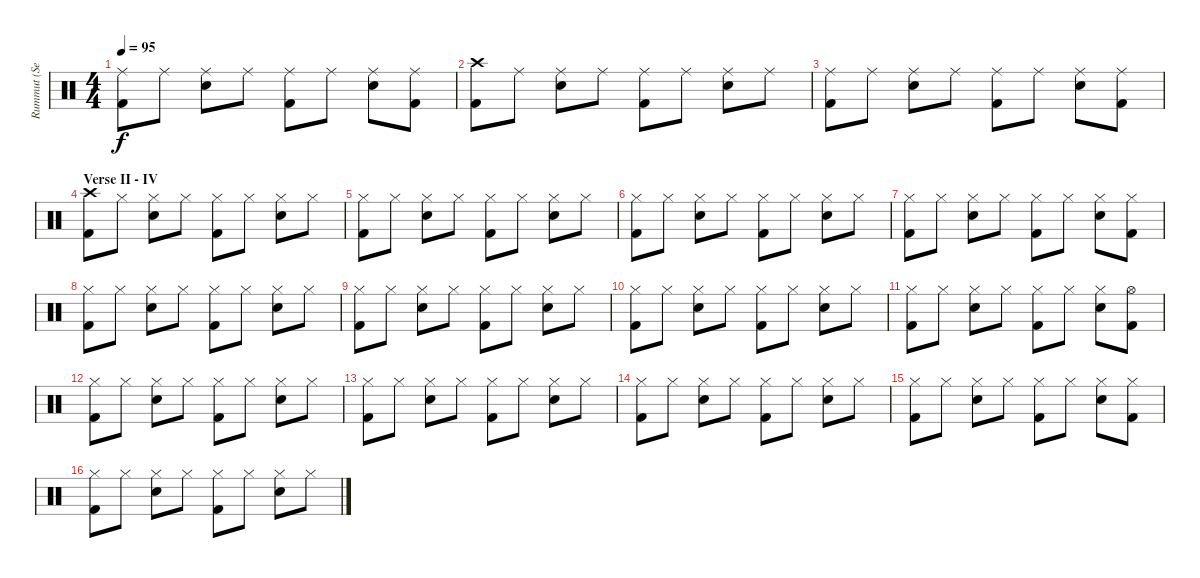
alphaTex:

\track ("Rummut (Seppo Pohjolainen)" "Rummut (Se") {instrument percussion}
\staff {score}
\articulation defaults
\ts (4 4)
\tempo 95
\clef neutral
\ks c
("Ride (middle)" "Kick (hit) 2").8{dy f} "Ride (middle)".8 ("Ride (middle)" "Snare (hit) 2").8 "Ride (middle)".8 ("Ride (middle)" "Kick (hit) 2").8 "Ride (middle)".8 ("Ride (middle)" "Snare (hit) 2").8 ("Ride (middle)" "Kick (hit) 2").8 |
("Crash high (hit)" "Kick (hit) 2").8 "Ride (middle)".8 ("Ride (middle)" "Snare (hit) 2").8 "Ride (middle)".8 ("Ride (middle)" "Kick (hit) 2").8 "Ride (middle)".8 ("Ride (middle)" "Snare (hit) 2").8 "Ride (middle)".8 |
("Ride (middle)" "Kick (hit) 2").8 "Ride (middle)".8 ("Ride (middle)" "Snare (hit) 2").8 "Ride (middle)".8 ("Ride (middle)" "Kick (hit) 2").8 "Ride (middle)".8 ("Ride (middle)" "Snare (hit) 2").8 ("Ride (middle)" "Kick (hit) 2").8 |
\section ("" "Verse II - IV")
("Crash high (hit)" "Kick (hit) 2").8 "Hi-Hat (closed)".8 ("Hi-Hat (closed)" "Snare (hit) 2").8 "Hi-Hat (closed)".8 ("Hi-Hat (closed)" "Kick (hit) 2").8 "Hi-Hat (closed)".8 ("Hi-Hat (closed)" "Snare (hit) 2").8 "Hi-Hat (closed)".8 |
("Hi-Hat (closed)" "Kick (hit) 2").8 "Hi-Hat (closed)".8 ("Hi-Hat (closed)" "Snare (hit) 2").8 "Hi-Hat (closed)".8 ("Hi-Hat (closed)" "Kick (hit) 2").8 "Hi-Hat (closed)".8 ("Hi-Hat (closed)" "Snare (hit) 2").8 "Hi-Hat (closed)".8 |
("Hi-Hat (closed)" "Kick (hit) 2").8 "Hi-Hat (closed)".8 ("Hi-Hat (closed)" "Snare (hit) 2").8 "Hi-Hat (closed)".8 ("Hi-Hat (closed)" "Kick (hit) 2").8 "Hi-Hat (closed)".8 ("Hi-Hat (closed)" "Snare (hit) 2").8 "Hi-Hat (closed)".8 |
("Hi-Hat (closed)" "Kick (hit) 2").8 "Hi-Hat (closed)".8 ("Hi-Hat (closed)" "Snare (hit) 2").8 "Hi-Hat (closed)".8 ("Hi-Hat (closed)" "Kick (hit) 2").8 "Hi-Hat (closed)".8 ("Hi-Hat (closed)" "Snare (hit) 2").8 ("Hi-Hat (closed)" "Kick (hit) 2").8 |
("Hi-Hat (closed)" "Kick (hit) 2").8 "Hi-Hat (closed)".8 ("Hi-Hat (closed)" "Snare (hit) 2").8 "Hi-Hat (closed)".8 ("Hi-Hat (closed)" "Kick (hit) 2").8 "Hi-Hat (closed)".8 ("Hi-Hat (closed)" "Snare (hit) 2").8 "Hi-Hat (closed)".8 |
("Hi-Hat (closed)" "Kick (hit) 2").8 "Hi-Hat (closed)".8 ("Hi-Hat (closed)" "Snare (hit) 2").8 "Hi-Hat (closed)".8 ("Hi-Hat (closed)" "Kick (hit) 2").8 "Hi-Hat (closed)".8 ("Hi-Hat (closed)" "Snare (hit) 2").8 "Hi-Hat (closed)".8 |
("Hi-Hat (closed)" "Kick (hit) 2").8 "Hi-Hat (closed)".8 ("Hi-Hat (closed)" "Snare (hit) 2").8 "Hi-Hat (closed)".8 ("Hi-Hat (closed)" "Kick (hit) 2").8 "Hi-Hat (closed)".8 ("Hi-Hat (closed)" "Snare (hit) 2").8 "Hi-Hat (closed)".8 |
("Hi-Hat (closed)" "Kick (hit) 2").8 "Hi-Hat (closed)".8 ("Hi-Hat (closed)" "Snare (hit) 2").8 "Hi-Hat (closed)".8 ("Hi-Hat (closed)" "Kick (hit) 2").8 "Hi-Hat (closed)".8 ("Hi-Hat (closed)" "Snare (hit) 2").8 ("Hi-Hat (open)" "Kick (hit) 2").8 |
("Hi-Hat (closed)" "Kick (hit) 2").8 "Hi-Hat (closed)".8 ("Hi-Hat (closed)" "Snare (hit) 2").8 "Hi-Hat (closed)".8 ("Hi-Hat (closed)" "Kick (hit) 2").8 "Hi-Hat (closed)".8 ("Hi-Hat (closed)" "Snare (hit) 2").8 "Hi-Hat (closed)".8 |
("Hi-Hat (closed)" "Kick (hit) 2").8 "Hi-Hat (closed)".8 ("Hi-Hat (closed)" "Snare (hit) 2").8 "Hi-Hat (closed)".8 ("Hi-Hat (closed)" "Kick (hit) 2").8 "Hi-Hat (closed)".8 ("Hi-Hat (closed)" "Snare (hit) 2").8 "Hi-Hat (closed)".8 |
("Hi-Hat (closed)" "Kick (hit) 2").8 "Hi-Hat (closed)".8 ("Hi-Hat (closed)" "Snare (hit) 2").8 "Hi-Hat (closed)".8 ("Hi-Hat (closed)" "Kick (hit) 2").8 "Hi-Hat (closed)".8 ("Hi-Hat (closed)" "Snare (hit) 2").8 "Hi-Hat (closed)".8 |
("Hi-Hat (closed)" "Kick (hit) 2").8 "Hi-Hat (closed)".8 ("Hi-Hat (closed)" "Snare (hit) 2").8 "Hi-Hat (closed)".8 ("Hi-Hat (closed)" "Kick (hit) 2").8 "Hi-Hat (closed)".8 ("Hi-Hat (closed)" "Snare (hit) 2").8 ("Hi-Hat (closed)" "Kick (hit) 2").8 |
("Hi-Hat (closed)" "Kick (hit) 2").8 "Hi-Hat (closed)".8 ("Hi-Hat (closed)" "Snare (hit) 2").8 "Hi-Hat (closed)".8 ("Hi-Hat (closed)" "Kick (hit) 2").8 "Hi-Hat (closed)".8 ("Hi-Hat (closed)" "Snare (hit) 2").8 "Hi-Hat (closed)".8
